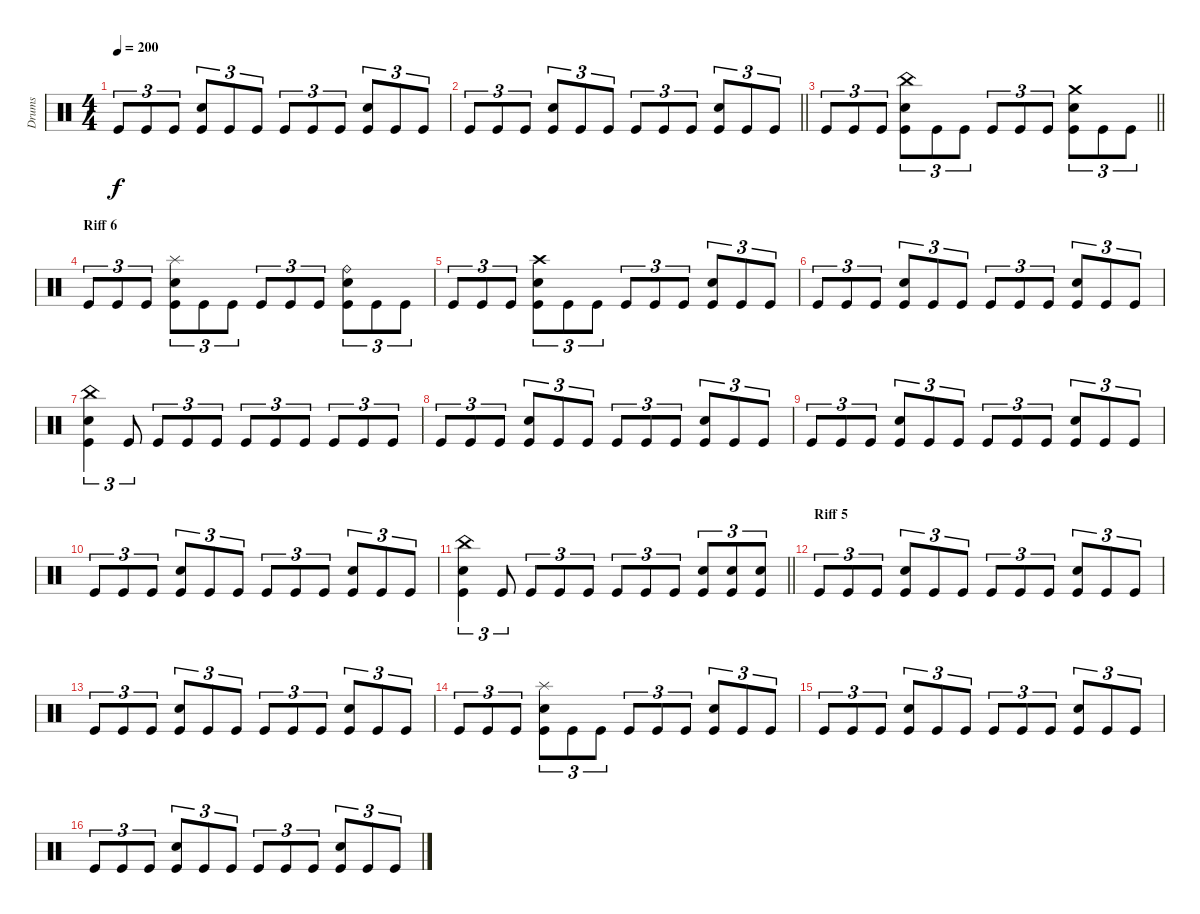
\track ("Drums" "Drums") {instrument percussion}
\staff {score}
\articulation defaults
\ts (4 4)
\tempo 200
\clef neutral
\ks c "Kick (hit)".8{tu (3 2) dy f} "Kick (hit)".8{tu (3 2)} "Kick (hit)".8{tu (3 2)}
("Snare (hit) 2" "Kick (hit)").8{tu (3 2)} "Kick (hit)".8{tu (3 2)} "Kick (hit)".8{tu (3 2)} "Kick (hit)".8{tu (3 2)} "Kick (hit)".8{tu (3 2)} "Kick (hit)".8{tu (3 2)} ("Snare (hit) 2" "Kick (hit)").8{tu (3 2)} "Kick (hit)".8{tu (3 2)} "Kick (hit)".8{tu (3 2)} |
\barLineRight lightlight "Kick (hit)".8{tu (3 2)} "Kick (hit)".8{tu (3 2)} "Kick (hit)".8{tu (3 2)}
("Snare (hit) 2" "Kick (hit)").8{tu (3 2)} "Kick (hit)".8{tu (3 2)} "Kick (hit)".8{tu (3 2)} "Kick (hit)".8{tu (3 2)} "Kick (hit)".8{tu (3 2)} "Kick (hit)".8{tu (3 2)} ("Snare (hit) 2" "Kick (hit)").8{tu (3 2)} "Kick (hit)".8{tu (3 2)} "Kick (hit)".8{tu (3 2)} |
\section ("" "")
\barLineRight lightlight "Kick (hit)".8{tu (3 2)} "Kick (hit)".8{tu (3 2)} "Kick (hit)".8{tu (3 2)}
("China (hit)" "Snare (hit) 2" "Kick (hit)").8{tu (3 2)} "Kick (hit)".8{tu (3 2)} "Kick (hit)".8{tu (3 2)} "Kick (hit)".8{tu (3 2)} "Kick (hit)".8{tu (3 2)} "Kick (hit)".8{tu (3 2)} ("Crash medium (hit)" "Snare (hit) 2" "Kick (hit)").8{tu (3 2)} "Kick (hit)".8{tu (3 2)} "Kick (hit)".8{tu (3 2)} |
\section ("" "Riff 6")
"Kick (hit)".8{tu (3 2)} "Kick (hit)".8{tu (3 2)} "Kick (hit)".8{tu (3 2)} ("Splash (hit)" "Snare (hit) 2" "Kick (hit)").8{tu (3 2)} "Kick (hit)".8{tu (3 2)} "Kick (hit)".8{tu (3 2)} "Kick (hit)".8{tu (3 2)} "Kick (hit)".8{tu (3 2)} "Kick (hit)".8{tu (3 2)} ("Ride (bell)" "Snare (hit) 2" "Kick (hit)").8{tu (3 2)} "Kick (hit)".8{tu (3 2)} "Kick (hit)".8{tu (3 2)} |
"Kick (hit)".8{tu (3 2)} "Kick (hit)".8{tu (3 2)} "Kick (hit)".8{tu (3 2)} ("Crash high (hit)" "Snare (hit) 2" "Kick (hit)").8{tu (3 2)} "Kick (hit)".8{tu (3 2)} "Kick (hit)".8{tu (3 2)} "Kick (hit)".8{tu (3 2)} "Kick (hit)".8{tu (3 2)} "Kick (hit)".8{tu (3 2)} ("Snare (hit) 2" "Kick (hit)").8{tu (3 2)} "Kick (hit)".8{tu (3 2)} "Kick (hit)".8{tu (3 2)} |
"Kick (hit)".8{tu (3 2)} "Kick (hit)".8{tu (3 2)} "Kick (hit)".8{tu (3 2)} ("Snare (hit) 2" "Kick (hit)").8{tu (3 2)} "Kick (hit)".8{tu (3 2)} "Kick (hit)".8{tu (3 2)} "Kick (hit)".8{tu (3 2)} "Kick (hit)".8{tu (3 2)} "Kick (hit)".8{tu (3 2)} ("Snare (hit) 2" "Kick (hit)").8{tu (3 2)} "Kick (hit)".8{tu (3 2)} "Kick (hit)".8{tu (3 2)} |
("China (hit)" "Snare (hit) 2" "Kick (hit)").4{tu (3 2)} "Kick (hit)".8{tu (3 2)} "Kick (hit)".8{tu (3 2)} "Kick (hit)".8{tu (3 2)} "Kick (hit)".8{tu (3 2)} "Kick (hit)".8{tu (3 2)} "Kick (hit)".8{tu (3 2)} "Kick (hit)".8{tu (3 2)} "Kick (hit)".8{tu (3 2)} "Kick (hit)".8{tu (3 2)} "Kick (hit)".8{tu (3 2)} |
"Kick (hit)".8{tu (3 2)} "Kick (hit)".8{tu (3 2)} "Kick (hit)".8{tu (3 2)} ("Snare (hit) 2" "Kick (hit)").8{tu (3 2)} "Kick (hit)".8{tu (3 2)} "Kick (hit)".8{tu (3 2)} "Kick (hit)".8{tu (3 2)} "Kick (hit)".8{tu (3 2)} "Kick (hit)".8{tu (3 2)} ("Snare (hit) 2" "Kick (hit)").8{tu (3 2)} "Kick (hit)".8{tu (3 2)} "Kick (hit)".8{tu (3 2)} |
"Kick (hit)".8{tu (3 2)} "Kick (hit)".8{tu (3 2)} "Kick (hit)".8{tu (3 2)} ("Snare (hit) 2" "Kick (hit)").8{tu (3 2)} "Kick (hit)".8{tu (3 2)} "Kick (hit)".8{tu (3 2)} "Kick (hit)".8{tu (3 2)} "Kick (hit)".8{tu (3 2)} "Kick (hit)".8{tu (3 2)} ("Snare (hit) 2" "Kick (hit)").8{tu (3 2)} "Kick (hit)".8{tu (3 2)} "Kick (hit)".8{tu (3 2)} |
"Kick (hit)".8{tu (3 2)} "Kick (hit)".8{tu (3 2)} "Kick (hit)".8{tu (3 2)} ("Snare (hit) 2" "Kick (hit)").8{tu (3 2)} "Kick (hit)".8{tu (3 2)} "Kick (hit)".8{tu (3 2)} "Kick (hit)".8{tu (3 2)} "Kick (hit)".8{tu (3 2)} "Kick (hit)".8{tu (3 2)} ("Snare (hit) 2" "Kick (hit)").8{tu (3 2)} "Kick (hit)".8{tu (3 2)} "Kick (hit)".8{tu (3 2)} |
\barLineRight lightlight
("China (hit)" "Snare (hit) 2" "Kick (hit)").4{tu (3 2)} "Kick (hit)".8{tu (3 2)} "Kick (hit)".8{tu (3 2)} "Kick (hit)".8{tu (3 2)} "Kick (hit)".8{tu (3 2)} "Kick (hit)".8{tu (3 2)} "Kick (hit)".8{tu (3 2)} "Kick (hit)".8{tu (3 2)} ("Snare (hit) 2" "Kick (hit)").8{tu (3 2)} ("Snare (hit) 2" "Kick (hit)").8{tu (3 2)} ("Snare (hit) 2" "Kick (hit)").8{tu (3 2)} |
\section ("" "Riff 5")
"Kick (hit)".8{tu (3 2)} "Kick (hit)".8{tu (3 2)} "Kick (hit)".8{tu (3 2)} ("Snare (hit) 2" "Kick (hit)").8{tu (3 2)} "Kick (hit)".8{tu (3 2)} "Kick (hit)".8{tu (3 2)} "Kick (hit)".8{tu (3 2)} "Kick (hit)".8{tu (3 2)} "Kick (hit)".8{tu (3 2)} ("Snare (hit) 2" "Kick (hit)").8{tu (3 2)} "Kick (hit)".8{tu (3 2)} "Kick (hit)".8{tu (3 2)} |
"Kick (hit)".8{tu (3 2)} "Kick (hit)".8{tu (3 2)} "Kick (hit)".8{tu (3 2)} ("Snare (hit) 2" "Kick (hit)").8{tu (3 2)} "Kick (hit)".8{tu (3 2)} "Kick (hit)".8{tu (3 2)} "Kick (hit)".8{tu (3 2)} "Kick (hit)".8{tu (3 2)} "Kick (hit)".8{tu (3 2)} ("Snare (hit) 2" "Kick (hit)").8{tu (3 2)} "Kick (hit)".8{tu (3 2)} "Kick (hit)".8{tu (3 2)} |
"Kick (hit)".8{tu (3 2)} "Kick (hit)".8{tu (3 2)} "Kick (hit)".8{tu (3 2)} ("Splash (hit)" "Snare (hit) 2" "Kick (hit)").8{tu (3 2)} "Kick (hit)".8{tu (3 2)} "Kick (hit)".8{tu (3 2)} "Kick (hit)".8{tu (3 2)} "Kick (hit)".8{tu (3 2)} "Kick (hit)".8{tu (3 2)} ("Snare (hit) 2" "Kick (hit)").8{tu (3 2)} "Kick (hit)".8{tu (3 2)} "Kick (hit)".8{tu (3 2)} |
"Kick (hit)".8{tu (3 2)} "Kick (hit)".8{tu (3 2)} "Kick (hit)".8{tu (3 2)} ("Snare (hit) 2" "Kick (hit)").8{tu (3 2)} "Kick (hit)".8{tu (3 2)} "Kick (hit)".8{tu (3 2)} "Kick (hit)".8{tu (3 2)} "Kick (hit)".8{tu (3 2)} "Kick (hit)".8{tu (3 2)} ("Snare (hit) 2" "Kick (hit)").8{tu (3 2)} "Kick (hit)".8{tu (3 2)} "Kick (hit)".8{tu (3 2)} |
"Kick (hit)".8{tu (3 2)} "Kick (hit)".8{tu (3 2)} "Kick (hit)".8{tu (3 2)} ("Snare (hit) 2" "Kick (hit)").8{tu (3 2)} "Kick (hit)".8{tu (3 2)} "Kick (hit)".8{tu (3 2)} "Kick (hit)".8{tu (3 2)} "Kick (hit)".8{tu (3 2)} "Kick (hit)".8{tu (3 2)} ("Snare (hit) 2" "Kick (hit)").8{tu (3 2)} "Kick (hit)".8{tu (3 2)} "Kick (hit)".8{tu (3 2)}
